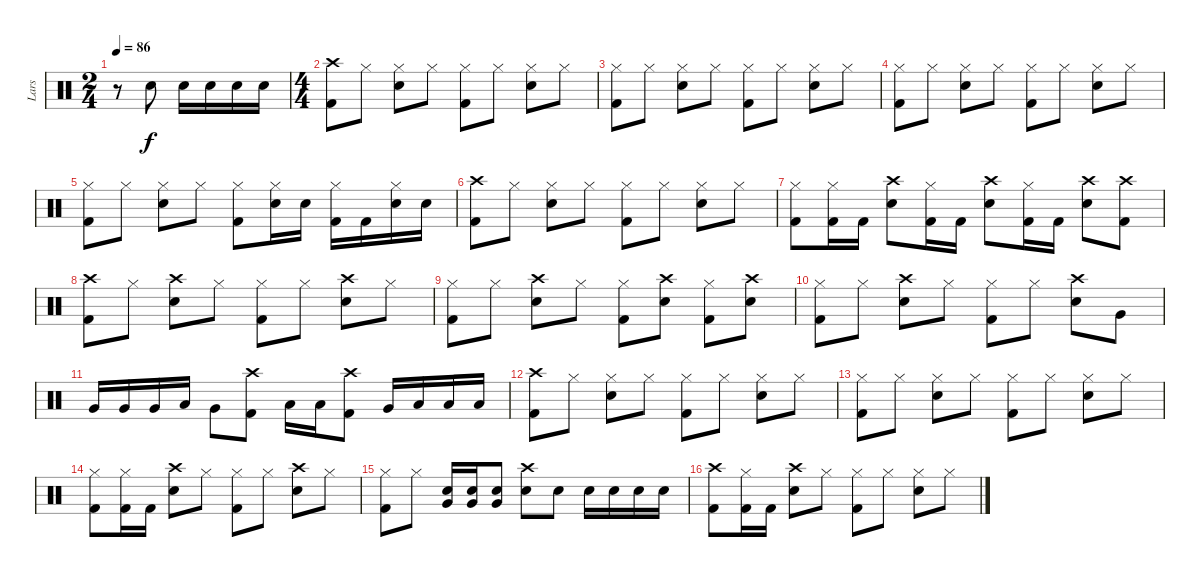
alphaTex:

\track ("Lars" "Lars") {instrument percussion}
\staff {score}
\articulation defaults
\ts (2 4)
\tempo 86
\clef neutral
\ks c
r.8{dy f} "Electric Snare (hit)".8 "Electric Snare (hit)".16 "Electric Snare (hit)".16 "Electric Snare (hit)".16 "Electric Snare (hit)".16 |
\ts (4 4)
("Crash high (hit)" "Kick (hit) 2").8 "Hi-Hat (closed)".8 ("Hi-Hat (closed)" "Electric Snare (hit)").8 "Hi-Hat (closed)".8 ("Hi-Hat (closed)" "Kick (hit) 2").8 "Hi-Hat (closed)".8 ("Hi-Hat (closed)" "Electric Snare (hit)").8 "Hi-Hat (closed)".8 |
("Hi-Hat (closed)" "Kick (hit) 2").8 "Hi-Hat (closed)".8 ("Hi-Hat (closed)" "Electric Snare (hit)").8 "Hi-Hat (closed)".8 ("Hi-Hat (closed)" "Kick (hit) 2").8 "Hi-Hat (closed)".8 ("Hi-Hat (closed)" "Electric Snare (hit)").8 "Hi-Hat (closed)".8 |
("Hi-Hat (closed)" "Kick (hit) 2").8 "Hi-Hat (closed)".8 ("Hi-Hat (closed)" "Electric Snare (hit)").8 "Hi-Hat (closed)".8 ("Hi-Hat (closed)" "Kick (hit) 2").8 "Hi-Hat (closed)".8 ("Hi-Hat (closed)" "Electric Snare (hit)").8 "Hi-Hat (closed)".8 |
("Hi-Hat (closed)" "Kick (hit) 2").8 "Hi-Hat (closed)".8 ("Hi-Hat (closed)" "Electric Snare (hit)").8 "Hi-Hat (closed)".8 ("Hi-Hat (closed)" "Kick (hit) 2").8 ("Hi-Hat (closed)" "Electric Snare (hit)").16 "Electric Snare (hit)".16 ("Hi-Hat (closed)" "Kick (hit) 2").16 "Kick (hit) 2".16 ("Hi-Hat (closed)" "Electric Snare (hit)").16 "Electric Snare (hit)".16 |
("Crash high (hit)" "Kick (hit) 2").8 "Hi-Hat (closed)".8 ("Hi-Hat (closed)" "Electric Snare (hit)").8 "Hi-Hat (closed)".8 ("Hi-Hat (closed)" "Kick (hit) 2").8 "Hi-Hat (closed)".8 ("Hi-Hat (closed)" "Electric Snare (hit)").8 "Hi-Hat (closed)".8 |
("Hi-Hat (closed)" "Kick (hit) 2").8 ("Hi-Hat (closed)" "Kick (hit) 2").16 "Kick (hit) 2".16 ("Crash high (hit)" "Electric Snare (hit)").8 ("Hi-Hat (closed)" "Kick (hit) 2").16 "Kick (hit) 2".16 ("Crash high (hit)" "Electric Snare (hit)").8 ("Hi-Hat (closed)" "Kick (hit) 2").16 "Kick (hit) 2".16 ("Crash high (hit)" "Electric Snare (hit)").8 ("Crash high (hit)" "Kick (hit) 2").8 |
("Crash high (hit)" "Kick (hit) 2").8 "Hi-Hat (closed)".8 ("Crash high (hit)" "Electric Snare (hit)").8 "Hi-Hat (closed)".8 ("Hi-Hat (closed)" "Kick (hit) 2").8 "Hi-Hat (closed)".8 ("Crash high (hit)" "Electric Snare (hit)").8 "Hi-Hat (closed)".8 |
("Hi-Hat (closed)" "Kick (hit) 2").8 "Hi-Hat (closed)".8 ("Crash high (hit)" "Electric Snare (hit)").8 "Hi-Hat (closed)".8 ("Hi-Hat (closed)" "Kick (hit) 2").8 ("Crash high (hit)" "Electric Snare (hit)").8 ("Hi-Hat (closed)" "Kick (hit) 2").8 ("Crash high (hit)" "Electric Snare (hit)").8 |
("Hi-Hat (closed)" "Kick (hit) 2").8 "Hi-Hat (closed)".8 ("Crash high (hit)" "Electric Snare (hit)").8 "Hi-Hat (closed)".8 ("Hi-Hat (closed)" "Kick (hit) 2").8 "Hi-Hat (closed)".8 ("Crash high (hit)" "Electric Snare (hit)").8 "Very Low Tom (hit)".8 |
"Very Low Tom (hit)".16 "Very Low Tom (hit)".16 "Very Low Tom (hit)".16 "Low Tom (hit)".16 "Very Low Tom (hit)".8 ("Crash high (hit)" "Kick (hit) 2").8 "Low Tom (hit)".16 "Low Tom (hit)".16 ("Crash high (hit)" "Kick (hit) 2").8 "Very Low Tom (hit)".16 "Low Tom (hit)".16 "Low Tom (hit)".16 "Low Tom (hit)".16 |
("Crash high (hit)" "Kick (hit) 2").8 "Hi-Hat (closed)".8 ("Hi-Hat (closed)" "Electric Snare (hit)").8 "Hi-Hat (closed)".8 ("Hi-Hat (closed)" "Kick (hit) 2").8 "Hi-Hat (closed)".8 ("Hi-Hat (closed)" "Electric Snare (hit)").8 "Hi-Hat (closed)".8 |
("Hi-Hat (closed)" "Kick (hit) 2").8 "Hi-Hat (closed)".8 ("Hi-Hat (closed)" "Electric Snare (hit)").8 "Hi-Hat (closed)".8 ("Hi-Hat (closed)" "Kick (hit) 2").8 "Hi-Hat (closed)".8 ("Hi-Hat (closed)" "Electric Snare (hit)").8 "Hi-Hat (closed)".8 |
("Hi-Hat (closed)" "Kick (hit) 2").8 ("Hi-Hat (closed)" "Kick (hit) 2").16 "Kick (hit) 2".16 ("Crash high (hit)" "Electric Snare (hit)").8 "Hi-Hat (closed)".8 ("Hi-Hat (closed)" "Kick (hit) 2").8 "Hi-Hat (closed)".8 ("Crash high (hit)" "Electric Snare (hit)").8 "Hi-Hat (closed)".8 |
("Hi-Hat (closed)" "Kick (hit) 2").8 "Hi-Hat (closed)".8 ("Electric Snare (hit)" "Very Low Tom (hit)").16 ("Electric Snare (hit)" "Very Low Tom (hit)").16 ("Electric Snare (hit)" "Very Low Tom (hit)").8 ("Crash high (hit)" "Electric Snare (hit)").8 "Electric Snare (hit)".8 "Electric Snare (hit)".16 "Electric Snare (hit)".16 "Electric Snare (hit)".16 "Electric Snare (hit)".16 |
("Crash high (hit)" "Kick (hit) 2").8 ("Hi-Hat (closed)" "Kick (hit) 2").16 "Kick (hit) 2".16 ("Crash high (hit)" "Electric Snare (hit)").8 "Hi-Hat (closed)".8 ("Hi-Hat (closed)" "Kick (hit) 2").8 "Hi-Hat (closed)".8 ("Hi-Hat (closed)" "Electric Snare (hit)").8 "Hi-Hat (closed)".8
